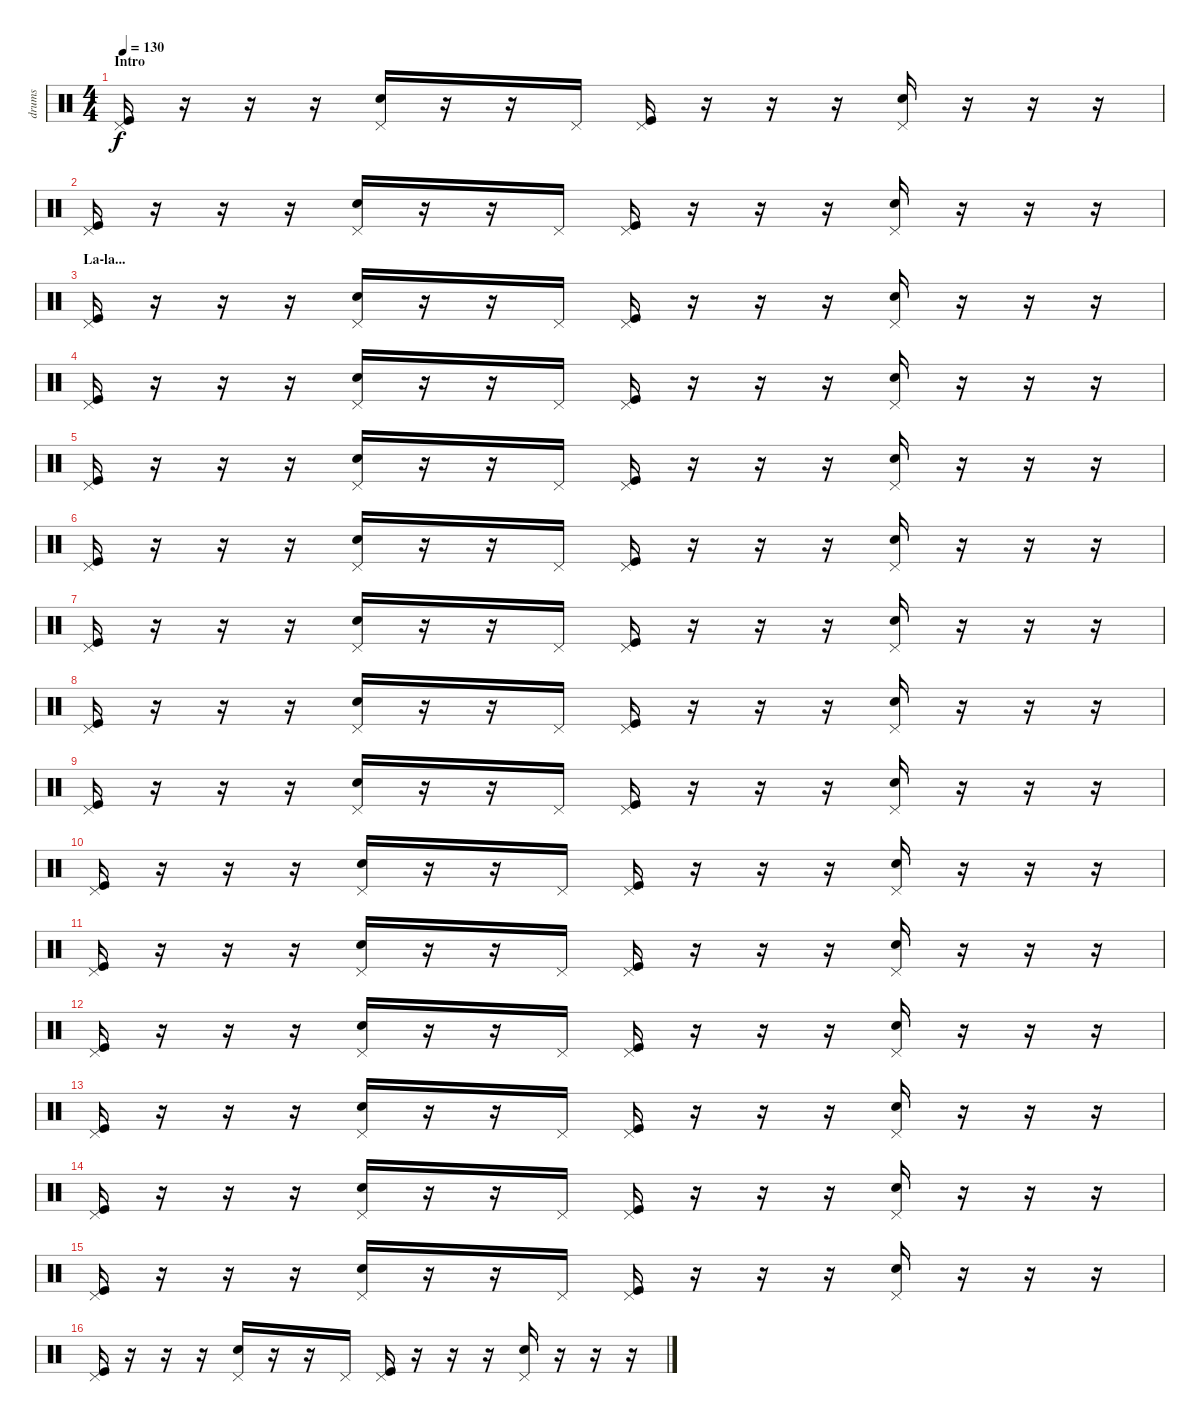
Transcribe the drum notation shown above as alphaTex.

\track ("drums" "drums") {instrument percussion}
\staff {score}
\articulation defaults
\ts (4 4)
\section ("" "Intro")
\tempo 130
\clef neutral
\ks c
("Kick (hit)" "Pedal Hi-Hat (hit)").16{dy f} r.16 r.16 r.16 ("Electric Snare (hit)" "Pedal Hi-Hat (hit)").16 r.16 r.16 "Pedal Hi-Hat (hit)".16 ("Kick (hit)" "Pedal Hi-Hat (hit)").16 r.16 r.16 r.16 ("Electric Snare (hit)" "Pedal Hi-Hat (hit)").16 r.16 r.16 r.16 |
("Kick (hit)" "Pedal Hi-Hat (hit)").16 r.16 r.16 r.16 ("Electric Snare (hit)" "Pedal Hi-Hat (hit)").16 r.16 r.16 "Pedal Hi-Hat (hit)".16 ("Kick (hit)" "Pedal Hi-Hat (hit)").16 r.16 r.16 r.16 ("Electric Snare (hit)" "Pedal Hi-Hat (hit)").16 r.16 r.16 r.16 |
\section ("" "La-la...")
("Kick (hit)" "Pedal Hi-Hat (hit)").16 r.16 r.16 r.16 ("Electric Snare (hit)" "Pedal Hi-Hat (hit)").16 r.16 r.16 "Pedal Hi-Hat (hit)".16 ("Kick (hit)" "Pedal Hi-Hat (hit)").16 r.16 r.16 r.16 ("Electric Snare (hit)" "Pedal Hi-Hat (hit)").16 r.16 r.16 r.16 |
("Kick (hit)" "Pedal Hi-Hat (hit)").16 r.16 r.16 r.16 ("Electric Snare (hit)" "Pedal Hi-Hat (hit)").16 r.16 r.16 "Pedal Hi-Hat (hit)".16 ("Kick (hit)" "Pedal Hi-Hat (hit)").16 r.16 r.16 r.16 ("Electric Snare (hit)" "Pedal Hi-Hat (hit)").16 r.16 r.16 r.16 |
("Kick (hit)" "Pedal Hi-Hat (hit)").16 r.16 r.16 r.16 ("Electric Snare (hit)" "Pedal Hi-Hat (hit)").16 r.16 r.16 "Pedal Hi-Hat (hit)".16 ("Kick (hit)" "Pedal Hi-Hat (hit)").16 r.16 r.16 r.16 ("Electric Snare (hit)" "Pedal Hi-Hat (hit)").16 r.16 r.16 r.16 |
("Kick (hit)" "Pedal Hi-Hat (hit)").16 r.16 r.16 r.16 ("Electric Snare (hit)" "Pedal Hi-Hat (hit)").16 r.16 r.16 "Pedal Hi-Hat (hit)".16 ("Kick (hit)" "Pedal Hi-Hat (hit)").16 r.16 r.16 r.16 ("Electric Snare (hit)" "Pedal Hi-Hat (hit)").16 r.16 r.16 r.16 |
("Kick (hit)" "Pedal Hi-Hat (hit)").16 r.16 r.16 r.16 ("Electric Snare (hit)" "Pedal Hi-Hat (hit)").16 r.16 r.16 "Pedal Hi-Hat (hit)".16 ("Kick (hit)" "Pedal Hi-Hat (hit)").16 r.16 r.16 r.16 ("Electric Snare (hit)" "Pedal Hi-Hat (hit)").16 r.16 r.16 r.16 |
("Kick (hit)" "Pedal Hi-Hat (hit)").16 r.16 r.16 r.16 ("Electric Snare (hit)" "Pedal Hi-Hat (hit)").16 r.16 r.16 "Pedal Hi-Hat (hit)".16 ("Kick (hit)" "Pedal Hi-Hat (hit)").16 r.16 r.16 r.16 ("Electric Snare (hit)" "Pedal Hi-Hat (hit)").16 r.16 r.16 r.16 |
("Kick (hit)" "Pedal Hi-Hat (hit)").16 r.16 r.16 r.16 ("Electric Snare (hit)" "Pedal Hi-Hat (hit)").16 r.16 r.16 "Pedal Hi-Hat (hit)".16 ("Kick (hit)" "Pedal Hi-Hat (hit)").16 r.16 r.16 r.16 ("Electric Snare (hit)" "Pedal Hi-Hat (hit)").16 r.16 r.16 r.16 |
("Kick (hit)" "Pedal Hi-Hat (hit)").16 r.16 r.16 r.16 ("Electric Snare (hit)" "Pedal Hi-Hat (hit)").16 r.16 r.16 "Pedal Hi-Hat (hit)".16 ("Kick (hit)" "Pedal Hi-Hat (hit)").16 r.16 r.16 r.16 ("Electric Snare (hit)" "Pedal Hi-Hat (hit)").16 r.16 r.16 r.16 |
("Kick (hit)" "Pedal Hi-Hat (hit)").16 r.16 r.16 r.16 ("Electric Snare (hit)" "Pedal Hi-Hat (hit)").16 r.16 r.16 "Pedal Hi-Hat (hit)".16 ("Kick (hit)" "Pedal Hi-Hat (hit)").16 r.16 r.16 r.16 ("Electric Snare (hit)" "Pedal Hi-Hat (hit)").16 r.16 r.16 r.16 |
("Kick (hit)" "Pedal Hi-Hat (hit)").16 r.16 r.16 r.16 ("Electric Snare (hit)" "Pedal Hi-Hat (hit)").16 r.16 r.16 "Pedal Hi-Hat (hit)".16 ("Kick (hit)" "Pedal Hi-Hat (hit)").16 r.16 r.16 r.16 ("Electric Snare (hit)" "Pedal Hi-Hat (hit)").16 r.16 r.16 r.16 |
("Kick (hit)" "Pedal Hi-Hat (hit)").16 r.16 r.16 r.16 ("Electric Snare (hit)" "Pedal Hi-Hat (hit)").16 r.16 r.16 "Pedal Hi-Hat (hit)".16 ("Kick (hit)" "Pedal Hi-Hat (hit)").16 r.16 r.16 r.16 ("Electric Snare (hit)" "Pedal Hi-Hat (hit)").16 r.16 r.16 r.16 |
("Kick (hit)" "Pedal Hi-Hat (hit)").16 r.16 r.16 r.16 ("Electric Snare (hit)" "Pedal Hi-Hat (hit)").16 r.16 r.16 "Pedal Hi-Hat (hit)".16 ("Kick (hit)" "Pedal Hi-Hat (hit)").16 r.16 r.16 r.16 ("Electric Snare (hit)" "Pedal Hi-Hat (hit)").16 r.16 r.16 r.16 |
("Kick (hit)" "Pedal Hi-Hat (hit)").16 r.16 r.16 r.16 ("Electric Snare (hit)" "Pedal Hi-Hat (hit)").16 r.16 r.16 "Pedal Hi-Hat (hit)".16 ("Kick (hit)" "Pedal Hi-Hat (hit)").16 r.16 r.16 r.16 ("Electric Snare (hit)" "Pedal Hi-Hat (hit)").16 r.16 r.16 r.16 |
("Kick (hit)" "Pedal Hi-Hat (hit)").16 r.16 r.16 r.16 ("Electric Snare (hit)" "Pedal Hi-Hat (hit)").16 r.16 r.16 "Pedal Hi-Hat (hit)".16 ("Kick (hit)" "Pedal Hi-Hat (hit)").16 r.16 r.16 r.16 ("Electric Snare (hit)" "Pedal Hi-Hat (hit)").16 r.16 r.16 r.16
